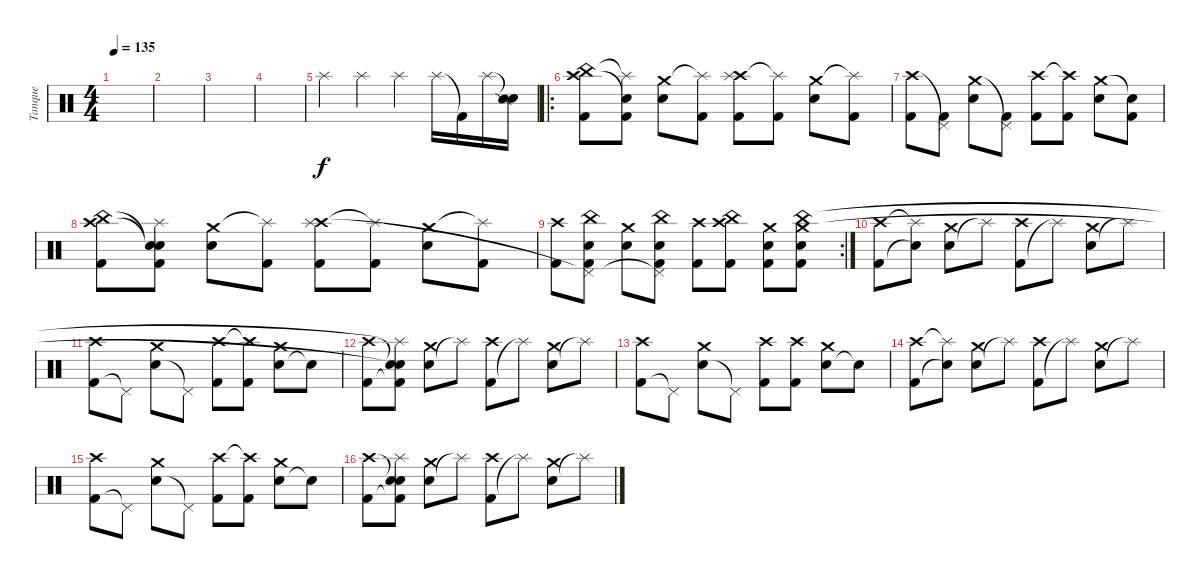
\track ("Tanque" "Tanque") {instrument percussion}
\staff {score}
\articulation defaults
\ts (4 4)
\tempo 135
\clef neutral
\ks c
|
|
|
|
"Splash (hit)".4 "Splash (hit)".4 "Splash (hit)".4 "Splash (hit)".16 "Kick (hit) 2"{t}.16 "Splash (hit)".16 ("Snare (hit)"{t} "Snare (side stick) 2").16 |
\ro
("Kick (hit) 2" "Crash high (hit)" "China (hit)").8 ("Kick (hit) 2" "Snare (hit)"{t} "Splash (hit)"{t}).8 ("Snare (hit) 2" "Crash medium (hit)").8 ("Kick (hit) 2" "Splash (hit)"{t}).8 ("Kick (hit) 2" "Crash high (hit)" "Splash (hit)").8 ("Kick (hit) 2" "Splash (hit)"{t}).8 ("Snare (hit) 2" "Crash medium (hit)").8 ("Kick (hit) 2" "Splash (hit)"{t}).8 |
("Kick (hit) 2" "Crash high (hit)").8 ("Kick (hit) 2" "Pedal Hi-Hat (hit)"{t}).8 ("Snare (hit) 2" "Crash medium (hit)").8 ("Kick (hit) 2" "Pedal Hi-Hat (hit)"{t}).8 ("Kick (hit) 2" "Crash high (hit)").8 ("Kick (hit) 2" "Crash high (hit)"{t}).8 ("Snare (hit) 2" "Crash medium (hit)").8 ("Kick (hit) 2" "Snare (hit)"{t}).8 |
("Kick (hit) 2" "Crash high (hit)" "China (hit)").8 ("Kick (hit) 2" "Snare (hit)"{t} "Snare (hit)"{t} "Splash (hit)").8 ("Snare (hit) 2" "Crash medium (hit)").8 ("Kick (hit) 2" "Splash (hit)"{t}).8 ("Kick (hit) 2" "Crash high (hit)" "Splash (hit)").8 ("Kick (hit) 2" "Splash (hit)"{t}).8 ("Snare (hit) 2" "Crash medium (hit)").8 ("Kick (hit) 2" "Splash (hit)"{t}).8 |
\rc 2
("Kick (hit) 2" "Crash high (hit)").8 ("Kick (hit) 2" "Snare (hit) 2" "Pedal Hi-Hat (hit)"{t} "China (hit)").8 ("Snare (hit) 2" "Crash medium (hit)").8 ("Kick (hit) 2" "Snare (hit) 2" "Pedal Hi-Hat (hit)"{t} "China (hit)").8 ("Kick (hit) 2" "Crash high (hit)").8 ("Kick (hit) 2" "Crash high (hit)" "China (hit)").8 ("Kick (hit) 2" "Snare (hit) 2" "Crash medium (hit)").8 ("Kick (hit) 2" "Snare (hit) 2" "Crash medium (hit)" "China (hit)").8 |
("Kick (hit) 2" "Crash high (hit)").8 ("Snare (hit)"{t} "Splash (hit)"{t}).8 ("Snare (hit) 2" "Crash medium (hit)").8 "Splash (hit)"{t}.8 ("Kick (hit) 2" "Crash high (hit)").8 "Splash (hit)"{t}.8 ("Snare (hit) 2" "Crash medium (hit)").8 "Splash (hit)"{t}.8 |
("Kick (hit) 2" "Crash high (hit)").8 "Pedal Hi-Hat (hit)"{t}.8 ("Snare (hit) 2" "Crash medium (hit)").8 "Pedal Hi-Hat (hit)"{t}.8 ("Kick (hit) 2" "Crash high (hit)").8 ("Kick (hit) 2" "Crash high (hit)"{t}).8 ("Snare (hit) 2" "Crash medium (hit)").8 "Snare (hit)"{t}.8 |
("Kick (hit) 2" "Crash high (hit)").8 ("Kick (hit) 2"{t} "Snare (hit)"{t} "Snare (hit)"{t} "Splash (hit)"{t}).8 ("Snare (hit) 2" "Crash medium (hit)").8 "Splash (hit)"{t}.8 ("Kick (hit) 2" "Crash high (hit)").8 "Splash (hit)"{t}.8 ("Snare (hit) 2" "Crash medium (hit)").8 "Splash (hit)"{t}.8 |
("Kick (hit) 2" "Crash high (hit)").8 "Pedal Hi-Hat (hit)"{t}.8 ("Snare (hit) 2" "Crash medium (hit)").8 "Pedal Hi-Hat (hit)"{t}.8 ("Kick (hit) 2" "Crash high (hit)").8 ("Kick (hit) 2" "Crash high (hit)").8 ("Snare (hit) 2" "Crash medium (hit)").8 "Snare (hit)"{t}.8 |
("Kick (hit) 2" "Crash high (hit)").8 ("Snare (hit)"{t} "Splash (hit)"{t}).8 ("Snare (hit) 2" "Crash medium (hit)").8 "Splash (hit)"{t}.8 ("Kick (hit) 2" "Crash high (hit)").8 "Splash (hit)"{t}.8 ("Snare (hit) 2" "Crash medium (hit)").8 "Splash (hit)"{t}.8 |
("Kick (hit) 2" "Crash high (hit)").8 "Pedal Hi-Hat (hit)"{t}.8 ("Snare (hit) 2" "Crash medium (hit)").8 "Pedal Hi-Hat (hit)"{t}.8 ("Kick (hit) 2" "Crash high (hit)").8 ("Kick (hit) 2" "Crash high (hit)"{t}).8 ("Snare (hit) 2" "Crash medium (hit)").8 "Snare (hit)"{t}.8 |
("Kick (hit) 2" "Crash high (hit)").8 ("Kick (hit) 2"{t} "Snare (hit)"{t} "Snare (hit)" "Splash (hit)").8 ("Snare (hit) 2" "Crash medium (hit)").8 "Splash (hit)"{t}.8 ("Kick (hit) 2" "Crash high (hit)").8 "Splash (hit)"{t}.8 ("Snare (hit) 2" "Crash medium (hit)").8 "Splash (hit)"{t}.8
